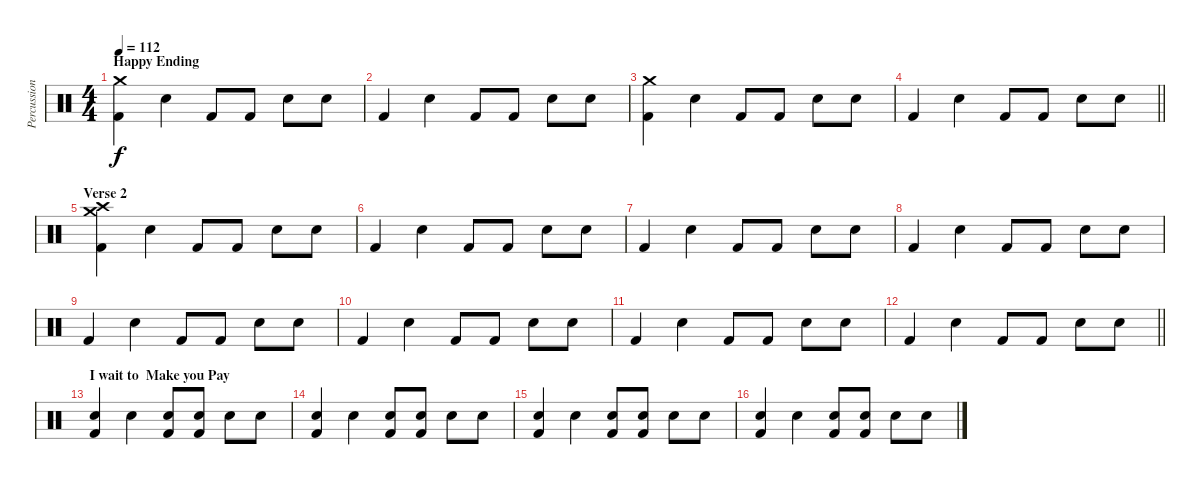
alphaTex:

\track ("Percussions" "Percussion") {instrument percussion}
\staff {score}
\articulation defaults
\ts (4 4)
\section ("" "Happy Ending")
\tempo 112
\clef neutral
\ks c
("Crash medium (hit)" "Kick (hit) 2").4{dy f} "Electric Snare (hit)".4 "Kick (hit) 2".8 "Kick (hit) 2".8 "Electric Snare (hit)".8 "Electric Snare (hit)".8 |
"Kick (hit) 2".4 "Electric Snare (hit)".4 "Kick (hit) 2".8 "Kick (hit) 2".8 "Electric Snare (hit)".8 "Electric Snare (hit)".8 |
("Crash medium (hit)" "Kick (hit) 2").4 "Electric Snare (hit)".4 "Kick (hit) 2".8 "Kick (hit) 2".8 "Electric Snare (hit)".8 "Electric Snare (hit)".8 |
\barLineRight lightlight "Kick (hit) 2".4 "Electric Snare (hit)".4 "Kick (hit) 2".8 "Kick (hit) 2".8 "Electric Snare (hit)".8 "Electric Snare (hit)".8
|
\section ("" "Verse 2")
("Crash high (hit)" "Crash medium (hit)" "Kick (hit) 2").4 "Electric Snare (hit)".4 "Kick (hit) 2".8 "Kick (hit) 2".8 "Electric Snare (hit)".8 "Electric Snare (hit)".8 |
"Kick (hit) 2".4 "Electric Snare (hit)".4 "Kick (hit) 2".8 "Kick (hit) 2".8 "Electric Snare (hit)".8 "Electric Snare (hit)".8 |
"Kick (hit) 2".4 "Electric Snare (hit)".4 "Kick (hit) 2".8 "Kick (hit) 2".8 "Electric Snare (hit)".8 "Electric Snare (hit)".8 |
"Kick (hit) 2".4 "Electric Snare (hit)".4 "Kick (hit) 2".8 "Kick (hit) 2".8 "Electric Snare (hit)".8 "Electric Snare (hit)".8 |
"Kick (hit) 2".4 "Electric Snare (hit)".4 "Kick (hit) 2".8 "Kick (hit) 2".8 "Electric Snare (hit)".8 "Electric Snare (hit)".8 |
"Kick (hit) 2".4 "Electric Snare (hit)".4 "Kick (hit) 2".8 "Kick (hit) 2".8 "Electric Snare (hit)".8 "Electric Snare (hit)".8 |
"Kick (hit) 2".4 "Electric Snare (hit)".4 "Kick (hit) 2".8 "Kick (hit) 2".8 "Electric Snare (hit)".8 "Electric Snare (hit)".8 |
\barLineRight lightlight "Kick (hit) 2".4 "Electric Snare (hit)".4 "Kick (hit) 2".8 "Kick (hit) 2".8 "Electric Snare (hit)".8 "Electric Snare (hit)".8
|
\section ("" "I wait to  Make you Pay")
("Snare (hit)" "Kick (hit) 2").4 "Electric Snare (hit)".4 ("Snare (hit)" "Kick (hit) 2").8 ("Snare (hit)" "Kick (hit) 2").8 "Electric Snare (hit)".8 "Electric Snare (hit)".8 |
("Snare (hit)" "Kick (hit) 2").4 "Electric Snare (hit)".4 ("Snare (hit)" "Kick (hit) 2").8 ("Snare (hit)" "Kick (hit) 2").8 "Electric Snare (hit)".8 "Electric Snare (hit)".8 |
("Snare (hit)" "Kick (hit) 2").4 "Electric Snare (hit)".4 ("Snare (hit)" "Kick (hit) 2").8 ("Snare (hit)" "Kick (hit) 2").8 "Electric Snare (hit)".8 "Electric Snare (hit)".8 |
("Snare (hit)" "Kick (hit) 2").4 "Electric Snare (hit)".4 ("Snare (hit)" "Kick (hit) 2").8 ("Snare (hit)" "Kick (hit) 2").8 "Electric Snare (hit)".8 "Electric Snare (hit)".8
